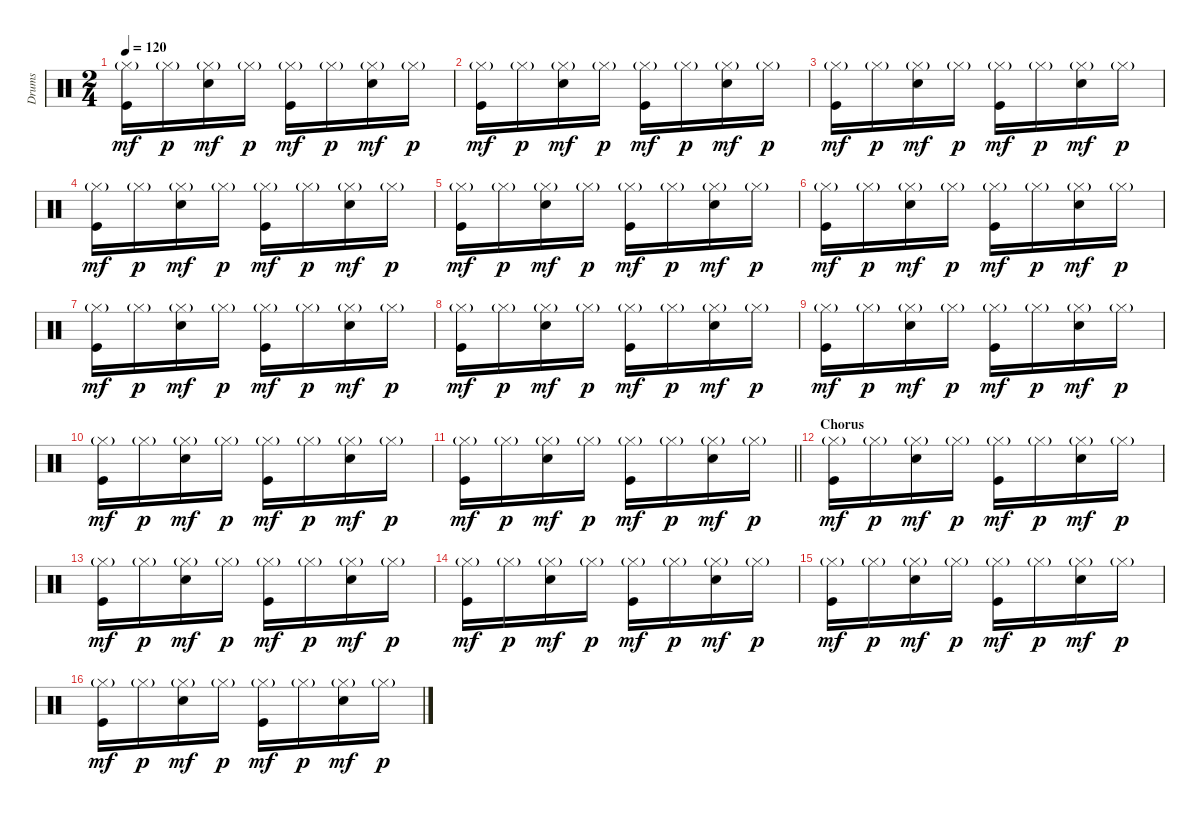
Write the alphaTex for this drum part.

\track ("Drums" "Drums") {instrument percussion}
\staff {score}
\articulation defaults
\ts (2 4)
\tempo 120
\clef neutral
\ks c
("Hi-Hat (closed)"{g} "Kick (hit)").16{dy mf} "Hi-Hat (closed)"{g}.16{dy p} ("Hi-Hat (closed)"{g} "Snare (hit) 2").16{dy mf} "Hi-Hat (closed)"{g}.16{dy p} ("Hi-Hat (closed)"{g} "Kick (hit)").16{dy mf} "Hi-Hat (closed)"{g}.16{dy p} ("Hi-Hat (closed)"{g} "Snare (hit) 2").16{dy mf} "Hi-Hat (closed)"{g}.16{dy p} |
("Hi-Hat (closed)"{g} "Kick (hit)").16{dy mf} "Hi-Hat (closed)"{g}.16{dy p} ("Hi-Hat (closed)"{g} "Snare (hit) 2").16{dy mf} "Hi-Hat (closed)"{g}.16{dy p} ("Hi-Hat (closed)"{g} "Kick (hit)").16{dy mf} "Hi-Hat (closed)"{g}.16{dy p} ("Hi-Hat (closed)"{g} "Snare (hit) 2").16{dy mf} "Hi-Hat (closed)"{g}.16{dy p} |
("Hi-Hat (closed)"{g} "Kick (hit)").16{dy mf} "Hi-Hat (closed)"{g}.16{dy p} ("Hi-Hat (closed)"{g} "Snare (hit) 2").16{dy mf} "Hi-Hat (closed)"{g}.16{dy p} ("Hi-Hat (closed)"{g} "Kick (hit)").16{dy mf} "Hi-Hat (closed)"{g}.16{dy p} ("Hi-Hat (closed)"{g} "Snare (hit) 2").16{dy mf} "Hi-Hat (closed)"{g}.16{dy p} |
("Hi-Hat (closed)"{g} "Kick (hit)").16{dy mf} "Hi-Hat (closed)"{g}.16{dy p} ("Hi-Hat (closed)"{g} "Snare (hit) 2").16{dy mf} "Hi-Hat (closed)"{g}.16{dy p} ("Hi-Hat (closed)"{g} "Kick (hit)").16{dy mf} "Hi-Hat (closed)"{g}.16{dy p} ("Hi-Hat (closed)"{g} "Snare (hit) 2").16{dy mf} "Hi-Hat (closed)"{g}.16{dy p} |
("Hi-Hat (closed)"{g} "Kick (hit)").16{dy mf} "Hi-Hat (closed)"{g}.16{dy p} ("Hi-Hat (closed)"{g} "Snare (hit) 2").16{dy mf} "Hi-Hat (closed)"{g}.16{dy p} ("Hi-Hat (closed)"{g} "Kick (hit)").16{dy mf} "Hi-Hat (closed)"{g}.16{dy p} ("Hi-Hat (closed)"{g} "Snare (hit) 2").16{dy mf} "Hi-Hat (closed)"{g}.16{dy p} |
("Hi-Hat (closed)"{g} "Kick (hit)").16{dy mf} "Hi-Hat (closed)"{g}.16{dy p} ("Hi-Hat (closed)"{g} "Snare (hit) 2").16{dy mf} "Hi-Hat (closed)"{g}.16{dy p} ("Hi-Hat (closed)"{g} "Kick (hit)").16{dy mf} "Hi-Hat (closed)"{g}.16{dy p} ("Hi-Hat (closed)"{g} "Snare (hit) 2").16{dy mf} "Hi-Hat (closed)"{g}.16{dy p} |
("Hi-Hat (closed)"{g} "Kick (hit)").16{dy mf} "Hi-Hat (closed)"{g}.16{dy p} ("Hi-Hat (closed)"{g} "Snare (hit) 2").16{dy mf} "Hi-Hat (closed)"{g}.16{dy p} ("Hi-Hat (closed)"{g} "Kick (hit)").16{dy mf} "Hi-Hat (closed)"{g}.16{dy p} ("Hi-Hat (closed)"{g} "Snare (hit) 2").16{dy mf} "Hi-Hat (closed)"{g}.16{dy p} |
("Hi-Hat (closed)"{g} "Kick (hit)").16{dy mf} "Hi-Hat (closed)"{g}.16{dy p} ("Hi-Hat (closed)"{g} "Snare (hit) 2").16{dy mf} "Hi-Hat (closed)"{g}.16{dy p} ("Hi-Hat (closed)"{g} "Kick (hit)").16{dy mf} "Hi-Hat (closed)"{g}.16{dy p} ("Hi-Hat (closed)"{g} "Snare (hit) 2").16{dy mf} "Hi-Hat (closed)"{g}.16{dy p} |
("Hi-Hat (closed)"{g} "Kick (hit)").16{dy mf} "Hi-Hat (closed)"{g}.16{dy p} ("Hi-Hat (closed)"{g} "Snare (hit) 2").16{dy mf} "Hi-Hat (closed)"{g}.16{dy p} ("Hi-Hat (closed)"{g} "Kick (hit)").16{dy mf} "Hi-Hat (closed)"{g}.16{dy p} ("Hi-Hat (closed)"{g} "Snare (hit) 2").16{dy mf} "Hi-Hat (closed)"{g}.16{dy p} |
("Hi-Hat (closed)"{g} "Kick (hit)").16{dy mf} "Hi-Hat (closed)"{g}.16{dy p} ("Hi-Hat (closed)"{g} "Snare (hit) 2").16{dy mf} "Hi-Hat (closed)"{g}.16{dy p} ("Hi-Hat (closed)"{g} "Kick (hit)").16{dy mf} "Hi-Hat (closed)"{g}.16{dy p} ("Hi-Hat (closed)"{g} "Snare (hit) 2").16{dy mf} "Hi-Hat (closed)"{g}.16{dy p} |
\barLineRight lightlight
("Hi-Hat (closed)"{g} "Kick (hit)").16{dy mf} "Hi-Hat (closed)"{g}.16{dy p} ("Hi-Hat (closed)"{g} "Snare (hit) 2").16{dy mf} "Hi-Hat (closed)"{g}.16{dy p} ("Hi-Hat (closed)"{g} "Kick (hit)").16{dy mf} "Hi-Hat (closed)"{g}.16{dy p} ("Hi-Hat (closed)"{g} "Snare (hit) 2").16{dy mf} "Hi-Hat (closed)"{g}.16{dy p} |
\section ("" "Chorus")
("Hi-Hat (closed)"{g} "Kick (hit)").16{dy mf} "Hi-Hat (closed)"{g}.16{dy p} ("Hi-Hat (closed)"{g} "Snare (hit) 2").16{dy mf} "Hi-Hat (closed)"{g}.16{dy p} ("Hi-Hat (closed)"{g} "Kick (hit)").16{dy mf} "Hi-Hat (closed)"{g}.16{dy p} ("Hi-Hat (closed)"{g} "Snare (hit) 2").16{dy mf} "Hi-Hat (closed)"{g}.16{dy p} |
("Hi-Hat (closed)"{g} "Kick (hit)").16{dy mf} "Hi-Hat (closed)"{g}.16{dy p} ("Hi-Hat (closed)"{g} "Snare (hit) 2").16{dy mf} "Hi-Hat (closed)"{g}.16{dy p} ("Hi-Hat (closed)"{g} "Kick (hit)").16{dy mf} "Hi-Hat (closed)"{g}.16{dy p} ("Hi-Hat (closed)"{g} "Snare (hit) 2").16{dy mf} "Hi-Hat (closed)"{g}.16{dy p} |
("Hi-Hat (closed)"{g} "Kick (hit)").16{dy mf} "Hi-Hat (closed)"{g}.16{dy p} ("Hi-Hat (closed)"{g} "Snare (hit) 2").16{dy mf} "Hi-Hat (closed)"{g}.16{dy p} ("Hi-Hat (closed)"{g} "Kick (hit)").16{dy mf} "Hi-Hat (closed)"{g}.16{dy p} ("Hi-Hat (closed)"{g} "Snare (hit) 2").16{dy mf} "Hi-Hat (closed)"{g}.16{dy p} |
("Hi-Hat (closed)"{g} "Kick (hit)").16{dy mf} "Hi-Hat (closed)"{g}.16{dy p} ("Hi-Hat (closed)"{g} "Snare (hit) 2").16{dy mf} "Hi-Hat (closed)"{g}.16{dy p} ("Hi-Hat (closed)"{g} "Kick (hit)").16{dy mf} "Hi-Hat (closed)"{g}.16{dy p} ("Hi-Hat (closed)"{g} "Snare (hit) 2").16{dy mf} "Hi-Hat (closed)"{g}.16{dy p} |
("Hi-Hat (closed)"{g} "Kick (hit)").16{dy mf} "Hi-Hat (closed)"{g}.16{dy p} ("Hi-Hat (closed)"{g} "Snare (hit) 2").16{dy mf} "Hi-Hat (closed)"{g}.16{dy p} ("Hi-Hat (closed)"{g} "Kick (hit)").16{dy mf} "Hi-Hat (closed)"{g}.16{dy p} ("Hi-Hat (closed)"{g} "Snare (hit) 2").16{dy mf} "Hi-Hat (closed)"{g}.16{dy p}
